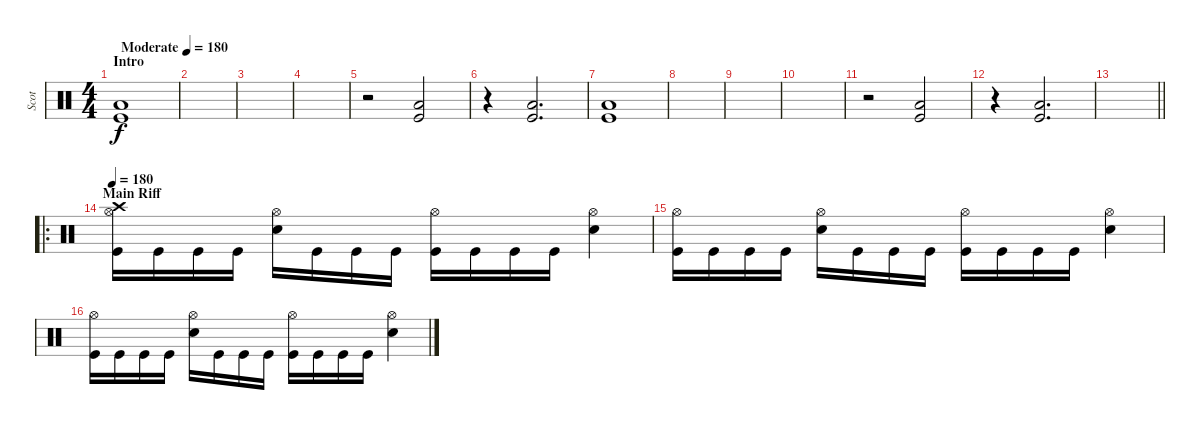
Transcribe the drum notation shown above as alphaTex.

\track ("Scot" "Scot") {instrument percussion}
\staff {score}
\articulation defaults
\ts (4 4)
\section ("" "Intro")
\tempo (180 "Moderate")
\tempo 80
\tempo (180 "Moderate")
\clef neutral
\ks c
("Low Floor Tom (hit)" "Kick (hit)").1{dy f} |
|
|
|
r.2 ("Low Floor Tom (hit)" "Kick (hit)").2 |
r.4 ("Low Floor Tom (hit)" "Kick (hit)").2{d} |
("Low Floor Tom (hit)" "Kick (hit)").1 |
|
|
|
r.2 ("Low Floor Tom (hit)" "Kick (hit)").2 |
r.4 ("Low Floor Tom (hit)" "Kick (hit)").2{d} |
\barLineRight lightlight
|
\ro
\section ("" "Main Riff")
\tempo 180
("Crash high (hit)" "Hi-Hat (open)" "Kick (hit)").16 "Kick (hit)".16 "Kick (hit)".16 "Kick (hit)".16 ("Electric Snare (hit)" "Hi-Hat (open)").16 "Kick (hit)".16 "Kick (hit)".16 "Kick (hit)".16 ("Hi-Hat (open)" "Kick (hit)").16 "Kick (hit)".16 "Kick (hit)".16 "Kick (hit)".16 ("Electric Snare (hit)" "Hi-Hat (open)").4 |
("Hi-Hat (open)" "Kick (hit)").16 "Kick (hit)".16 "Kick (hit)".16 "Kick (hit)".16 ("Electric Snare (hit)" "Hi-Hat (open)").16 "Kick (hit)".16 "Kick (hit)".16 "Kick (hit)".16 ("Hi-Hat (open)" "Kick (hit)").16 "Kick (hit)".16 "Kick (hit)".16 "Kick (hit)".16 ("Electric Snare (hit)" "Hi-Hat (open)").4 |
("Hi-Hat (open)" "Kick (hit)").16 "Kick (hit)".16 "Kick (hit)".16 "Kick (hit)".16 ("Electric Snare (hit)" "Hi-Hat (open)").16 "Kick (hit)".16 "Kick (hit)".16 "Kick (hit)".16 ("Hi-Hat (open)" "Kick (hit)").16 "Kick (hit)".16 "Kick (hit)".16 "Kick (hit)".16 ("Electric Snare (hit)" "Hi-Hat (open)").4
